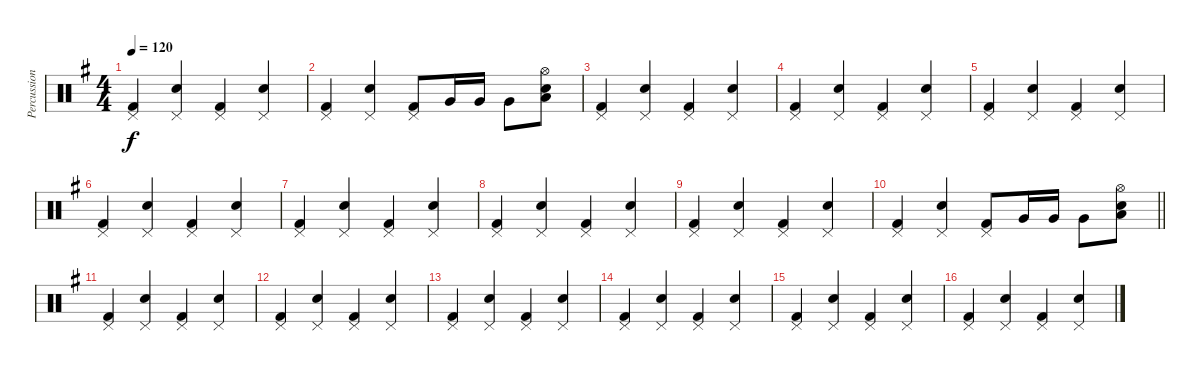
\track ("Percussion" "Percussion") {instrument percussion}
\staff {score}
\articulation defaults
\ts (4 4)
\tempo 120
\clef neutral
\ks eminor
("Kick (hit) 2" "Pedal Hi-Hat (hit)").4{dy f} ("Snare (hit) 2" "Pedal Hi-Hat (hit)").4 ("Kick (hit) 2" "Pedal Hi-Hat (hit)").4 ("Snare (hit) 2" "Pedal Hi-Hat (hit)").4 |
("Kick (hit) 2" "Pedal Hi-Hat (hit)").4 ("Snare (hit) 2" "Pedal Hi-Hat (hit)").4 ("Kick (hit) 2" "Pedal Hi-Hat (hit)").8 "Very Low Tom (hit)".16 "Very Low Tom (hit)".16 "Very Low Tom (hit)".8 ("Snare (hit) 2" "Low Floor Tom (hit)" "Hi-Hat (open)").8 |
("Kick (hit) 2" "Pedal Hi-Hat (hit)").4 ("Snare (hit) 2" "Pedal Hi-Hat (hit)").4 ("Kick (hit) 2" "Pedal Hi-Hat (hit)").4 ("Snare (hit) 2" "Pedal Hi-Hat (hit)").4 |
("Kick (hit) 2" "Pedal Hi-Hat (hit)").4 ("Snare (hit) 2" "Pedal Hi-Hat (hit)").4 ("Kick (hit) 2" "Pedal Hi-Hat (hit)").4 ("Snare (hit) 2" "Pedal Hi-Hat (hit)").4 |
("Kick (hit) 2" "Pedal Hi-Hat (hit)").4 ("Snare (hit) 2" "Pedal Hi-Hat (hit)").4 ("Kick (hit) 2" "Pedal Hi-Hat (hit)").4 ("Snare (hit) 2" "Pedal Hi-Hat (hit)").4 |
("Kick (hit) 2" "Pedal Hi-Hat (hit)").4 ("Snare (hit) 2" "Pedal Hi-Hat (hit)").4 ("Kick (hit) 2" "Pedal Hi-Hat (hit)").4 ("Snare (hit) 2" "Pedal Hi-Hat (hit)").4 |
("Kick (hit) 2" "Pedal Hi-Hat (hit)").4 ("Snare (hit) 2" "Pedal Hi-Hat (hit)").4 ("Kick (hit) 2" "Pedal Hi-Hat (hit)").4 ("Snare (hit) 2" "Pedal Hi-Hat (hit)").4 |
("Kick (hit) 2" "Pedal Hi-Hat (hit)").4 ("Snare (hit) 2" "Pedal Hi-Hat (hit)").4 ("Kick (hit) 2" "Pedal Hi-Hat (hit)").4 ("Snare (hit) 2" "Pedal Hi-Hat (hit)").4 |
("Kick (hit) 2" "Pedal Hi-Hat (hit)").4 ("Snare (hit) 2" "Pedal Hi-Hat (hit)").4 ("Kick (hit) 2" "Pedal Hi-Hat (hit)").4 ("Snare (hit) 2" "Pedal Hi-Hat (hit)").4 |
\barLineRight lightlight
("Kick (hit) 2" "Pedal Hi-Hat (hit)").4 ("Snare (hit) 2" "Pedal Hi-Hat (hit)").4 ("Kick (hit) 2" "Pedal Hi-Hat (hit)").8 "Very Low Tom (hit)".16 "Very Low Tom (hit)".16 "Very Low Tom (hit)".8 ("Snare (hit) 2" "Low Floor Tom (hit)" "Hi-Hat (open)").8 |
("Kick (hit) 2" "Pedal Hi-Hat (hit)").4 ("Snare (hit) 2" "Pedal Hi-Hat (hit)").4 ("Kick (hit) 2" "Pedal Hi-Hat (hit)").4 ("Snare (hit) 2" "Pedal Hi-Hat (hit)").4 |
("Kick (hit) 2" "Pedal Hi-Hat (hit)").4 ("Snare (hit) 2" "Pedal Hi-Hat (hit)").4 ("Kick (hit) 2" "Pedal Hi-Hat (hit)").4 ("Snare (hit) 2" "Pedal Hi-Hat (hit)").4 |
("Kick (hit) 2" "Pedal Hi-Hat (hit)").4 ("Snare (hit) 2" "Pedal Hi-Hat (hit)").4 ("Kick (hit) 2" "Pedal Hi-Hat (hit)").4 ("Snare (hit) 2" "Pedal Hi-Hat (hit)").4 |
("Kick (hit) 2" "Pedal Hi-Hat (hit)").4 ("Snare (hit) 2" "Pedal Hi-Hat (hit)").4 ("Kick (hit) 2" "Pedal Hi-Hat (hit)").4 ("Snare (hit) 2" "Pedal Hi-Hat (hit)").4 |
("Kick (hit) 2" "Pedal Hi-Hat (hit)").4 ("Snare (hit) 2" "Pedal Hi-Hat (hit)").4 ("Kick (hit) 2" "Pedal Hi-Hat (hit)").4 ("Snare (hit) 2" "Pedal Hi-Hat (hit)").4 |
("Kick (hit) 2" "Pedal Hi-Hat (hit)").4 ("Snare (hit) 2" "Pedal Hi-Hat (hit)").4 ("Kick (hit) 2" "Pedal Hi-Hat (hit)").4 ("Snare (hit) 2" "Pedal Hi-Hat (hit)").4
